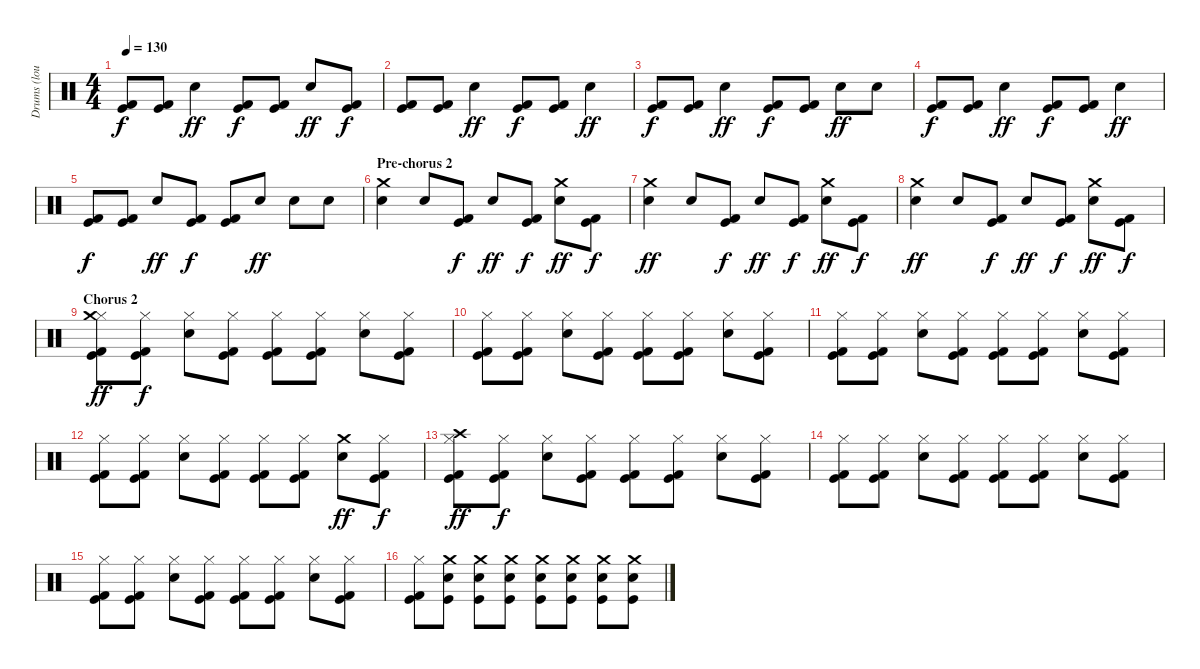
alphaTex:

\track ("Drums (loud!)" "Drums (lou") {instrument percussion}
\staff {score}
\articulation defaults
\ts (4 4)
\tempo 130
\clef neutral
\ks c
("Kick (hit)" "Kick (hit) 2").8{dy f} ("Kick (hit)" "Kick (hit) 2").8 "Snare (hit) 2".4{dy ff} ("Kick (hit)" "Kick (hit) 2").8{dy f} ("Kick (hit)" "Kick (hit) 2").8 "Snare (hit) 2".8{dy ff} ("Kick (hit)" "Kick (hit) 2").8{dy f} |
("Kick (hit)" "Kick (hit) 2").8 ("Kick (hit)" "Kick (hit) 2").8 "Snare (hit) 2".4{dy ff} ("Kick (hit)" "Kick (hit) 2").8{dy f} ("Kick (hit)" "Kick (hit) 2").8 "Snare (hit) 2".4{dy ff} |
("Kick (hit)" "Kick (hit) 2").8{dy f} ("Kick (hit)" "Kick (hit) 2").8 "Snare (hit) 2".4{dy ff} ("Kick (hit)" "Kick (hit) 2").8{dy f} ("Kick (hit)" "Kick (hit) 2").8 "Snare (hit) 2".8{dy ff} "Snare (hit) 2".8 |
("Kick (hit)" "Kick (hit) 2").8{dy f} ("Kick (hit)" "Kick (hit) 2").8 "Snare (hit) 2".4{dy ff} ("Kick (hit)" "Kick (hit) 2").8{dy f} ("Kick (hit)" "Kick (hit) 2").8 "Snare (hit) 2".4{dy ff} |
("Kick (hit)" "Kick (hit) 2").8{dy f} ("Kick (hit)" "Kick (hit) 2").8 "Snare (hit) 2".8{dy ff} ("Kick (hit)" "Kick (hit) 2").8{dy f} ("Kick (hit)" "Kick (hit) 2").8 "Snare (hit) 2".8{dy ff} "Snare (hit) 2".8 "Snare (hit) 2".8 |
\section ("" "Pre-chorus 2")
("Crash medium (hit)" "Snare (hit) 2").4 "Snare (hit) 2".8 ("Kick (hit)" "Kick (hit) 2").8{dy f} "Snare (hit) 2".8{dy ff} ("Kick (hit)" "Kick (hit) 2").8{dy f} ("Crash medium (hit)" "Snare (hit) 2").8{dy ff} ("Kick (hit)" "Kick (hit) 2").8{dy f} |
("Crash medium (hit)" "Snare (hit) 2").4{dy ff} "Snare (hit) 2".8 ("Kick (hit)" "Kick (hit) 2").8{dy f} "Snare (hit) 2".8{dy ff} ("Kick (hit)" "Kick (hit) 2").8{dy f} ("Crash medium (hit)" "Snare (hit) 2").8{dy ff} ("Kick (hit)" "Kick (hit) 2").8{dy f} |
("Crash medium (hit)" "Snare (hit) 2").4{dy ff} "Snare (hit) 2".8 ("Kick (hit)" "Kick (hit) 2").8{dy f} "Snare (hit) 2".8{dy ff} ("Kick (hit)" "Kick (hit) 2").8{dy f} ("Crash medium (hit)" "Snare (hit) 2").8{dy ff} ("Kick (hit)" "Kick (hit) 2").8{dy f} |
\section ("" "Chorus 2")
("Hi-Hat (closed)" "Crash medium (hit)" "Kick (hit) 2" "Kick (hit)").8{dy ff} ("Hi-Hat (closed)" "Kick (hit) 2" "Kick (hit)").8{dy f} ("Hi-Hat (closed)" "Snare (hit) 2").8 ("Hi-Hat (closed)" "Kick (hit) 2" "Kick (hit)").8 ("Hi-Hat (closed)" "Kick (hit) 2" "Kick (hit)").8 ("Hi-Hat (closed)" "Kick (hit) 2" "Kick (hit)").8 ("Hi-Hat (closed)" "Snare (hit) 2").8 ("Hi-Hat (closed)" "Kick (hit) 2" "Kick (hit)").8 |
("Hi-Hat (closed)" "Kick (hit) 2" "Kick (hit)").8 ("Hi-Hat (closed)" "Kick (hit) 2" "Kick (hit)").8 ("Hi-Hat (closed)" "Snare (hit) 2").8 ("Hi-Hat (closed)" "Kick (hit) 2" "Kick (hit)").8 ("Hi-Hat (closed)" "Kick (hit) 2" "Kick (hit)").8 ("Hi-Hat (closed)" "Kick (hit) 2" "Kick (hit)").8 ("Hi-Hat (closed)" "Snare (hit) 2").8 ("Hi-Hat (closed)" "Kick (hit) 2" "Kick (hit)").8 |
("Hi-Hat (closed)" "Kick (hit) 2" "Kick (hit)").8 ("Hi-Hat (closed)" "Kick (hit) 2" "Kick (hit)").8 ("Hi-Hat (closed)" "Snare (hit) 2").8 ("Hi-Hat (closed)" "Kick (hit) 2" "Kick (hit)").8 ("Hi-Hat (closed)" "Kick (hit) 2" "Kick (hit)").8 ("Hi-Hat (closed)" "Kick (hit) 2" "Kick (hit)").8 ("Hi-Hat (closed)" "Snare (hit) 2").8 ("Hi-Hat (closed)" "Kick (hit) 2" "Kick (hit)").8 |
("Hi-Hat (closed)" "Kick (hit) 2" "Kick (hit)").8 ("Hi-Hat (closed)" "Kick (hit) 2" "Kick (hit)").8 ("Hi-Hat (closed)" "Snare (hit) 2").8 ("Hi-Hat (closed)" "Kick (hit) 2" "Kick (hit)").8 ("Hi-Hat (closed)" "Kick (hit) 2" "Kick (hit)").8 ("Hi-Hat (closed)" "Kick (hit) 2" "Kick (hit)").8 ("Crash medium (hit)" "Snare (hit) 2").8{dy ff} ("Hi-Hat (closed)" "Kick (hit) 2" "Kick (hit)").8{dy f} |
("Hi-Hat (closed)" "Crash high (hit)" "Kick (hit) 2" "Kick (hit)").8{dy ff} ("Hi-Hat (closed)" "Kick (hit) 2" "Kick (hit)").8{dy f} ("Hi-Hat (closed)" "Snare (hit) 2").8 ("Hi-Hat (closed)" "Kick (hit) 2" "Kick (hit)").8 ("Hi-Hat (closed)" "Kick (hit) 2" "Kick (hit)").8 ("Hi-Hat (closed)" "Kick (hit) 2" "Kick (hit)").8 ("Hi-Hat (closed)" "Snare (hit) 2").8 ("Hi-Hat (closed)" "Kick (hit) 2" "Kick (hit)").8 |
("Hi-Hat (closed)" "Kick (hit) 2" "Kick (hit)").8 ("Hi-Hat (closed)" "Kick (hit) 2" "Kick (hit)").8 ("Hi-Hat (closed)" "Snare (hit) 2").8 ("Hi-Hat (closed)" "Kick (hit) 2" "Kick (hit)").8 ("Hi-Hat (closed)" "Kick (hit) 2" "Kick (hit)").8 ("Hi-Hat (closed)" "Kick (hit) 2" "Kick (hit)").8 ("Hi-Hat (closed)" "Snare (hit) 2").8 ("Hi-Hat (closed)" "Kick (hit) 2" "Kick (hit)").8 |
("Hi-Hat (closed)" "Kick (hit) 2" "Kick (hit)").8 ("Hi-Hat (closed)" "Kick (hit) 2" "Kick (hit)").8 ("Hi-Hat (closed)" "Snare (hit) 2").8 ("Hi-Hat (closed)" "Kick (hit) 2" "Kick (hit)").8 ("Hi-Hat (closed)" "Kick (hit) 2" "Kick (hit)").8 ("Hi-Hat (closed)" "Kick (hit) 2" "Kick (hit)").8 ("Hi-Hat (closed)" "Snare (hit) 2").8 ("Hi-Hat (closed)" "Kick (hit) 2" "Kick (hit)").8 |
("Hi-Hat (closed)" "Kick (hit) 2" "Kick (hit)").8 ("Crash medium (hit)" "Snare (hit) 2" "Kick (hit)").8 ("Crash medium (hit)" "Snare (hit) 2" "Kick (hit)").8 ("Crash medium (hit)" "Snare (hit) 2" "Kick (hit)").8 ("Crash medium (hit)" "Snare (hit) 2" "Kick (hit)").8 ("Crash medium (hit)" "Snare (hit) 2" "Kick (hit)").8 ("Crash medium (hit)" "Snare (hit) 2" "Kick (hit)").8 ("Crash medium (hit)" "Snare (hit) 2" "Kick (hit)").8
